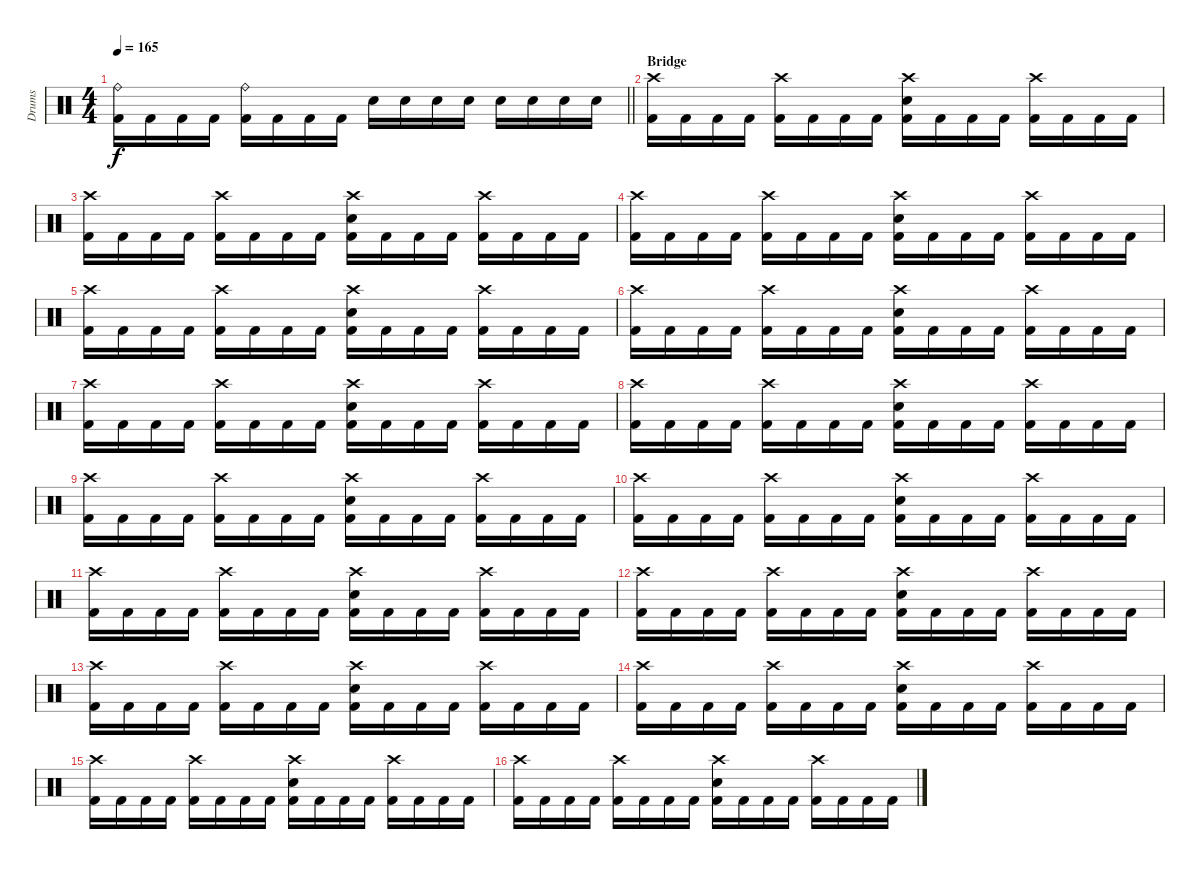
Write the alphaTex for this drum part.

\track ("Drums" "Drums") {instrument percussion}
\staff {score}
\articulation defaults
\ts (4 4)
\tempo 165
\clef neutral
\barLineRight lightlight
\ks c
("Kick (hit) 2" "Ride (bell)").16{dy f} "Kick (hit) 2".16 "Kick (hit) 2".16 "Kick (hit) 2".16 ("Kick (hit) 2" "Ride (bell)").16 "Kick (hit) 2".16 "Kick (hit) 2".16 "Kick (hit) 2".16 "Snare (hit) 2".16 "Snare (hit) 2".16 "Snare (hit) 2".16 "Snare (hit) 2".16 "Snare (hit) 2".16 "Snare (hit) 2".16 "Snare (hit) 2".16 "Snare (hit) 2".16 |
\section ("" "Bridge")
("Kick (hit) 2" "Crash high (hit)").16 "Kick (hit) 2".16 "Kick (hit) 2".16 "Kick (hit) 2".16 ("Kick (hit) 2" "Crash high (hit)").16 "Kick (hit) 2".16 "Kick (hit) 2".16 "Kick (hit) 2".16 ("Kick (hit) 2" "Snare (hit) 2" "Crash high (hit)").16 "Kick (hit) 2".16 "Kick (hit) 2".16 "Kick (hit) 2".16 ("Kick (hit) 2" "Crash high (hit)").16 "Kick (hit) 2".16 "Kick (hit) 2".16 "Kick (hit) 2".16 |
("Kick (hit) 2" "Crash high (hit)").16 "Kick (hit) 2".16 "Kick (hit) 2".16 "Kick (hit) 2".16 ("Kick (hit) 2" "Crash high (hit)").16 "Kick (hit) 2".16 "Kick (hit) 2".16 "Kick (hit) 2".16 ("Kick (hit) 2" "Snare (hit) 2" "Crash high (hit)").16 "Kick (hit) 2".16 "Kick (hit) 2".16 "Kick (hit) 2".16 ("Kick (hit) 2" "Crash high (hit)").16 "Kick (hit) 2".16 "Kick (hit) 2".16 "Kick (hit) 2".16 |
("Kick (hit) 2" "Crash high (hit)").16 "Kick (hit) 2".16 "Kick (hit) 2".16 "Kick (hit) 2".16 ("Kick (hit) 2" "Crash high (hit)").16 "Kick (hit) 2".16 "Kick (hit) 2".16 "Kick (hit) 2".16 ("Kick (hit) 2" "Snare (hit) 2" "Crash high (hit)").16 "Kick (hit) 2".16 "Kick (hit) 2".16 "Kick (hit) 2".16 ("Kick (hit) 2" "Crash high (hit)").16 "Kick (hit) 2".16 "Kick (hit) 2".16 "Kick (hit) 2".16 |
("Kick (hit) 2" "Crash high (hit)").16 "Kick (hit) 2".16 "Kick (hit) 2".16 "Kick (hit) 2".16 ("Kick (hit) 2" "Crash high (hit)").16 "Kick (hit) 2".16 "Kick (hit) 2".16 "Kick (hit) 2".16 ("Kick (hit) 2" "Snare (hit) 2" "Crash high (hit)").16 "Kick (hit) 2".16 "Kick (hit) 2".16 "Kick (hit) 2".16 ("Kick (hit) 2" "Crash high (hit)").16 "Kick (hit) 2".16 "Kick (hit) 2".16 "Kick (hit) 2".16 |
("Kick (hit) 2" "Crash high (hit)").16 "Kick (hit) 2".16 "Kick (hit) 2".16 "Kick (hit) 2".16 ("Kick (hit) 2" "Crash high (hit)").16 "Kick (hit) 2".16 "Kick (hit) 2".16 "Kick (hit) 2".16 ("Kick (hit) 2" "Snare (hit) 2" "Crash high (hit)").16 "Kick (hit) 2".16 "Kick (hit) 2".16 "Kick (hit) 2".16 ("Kick (hit) 2" "Crash high (hit)").16 "Kick (hit) 2".16 "Kick (hit) 2".16 "Kick (hit) 2".16 |
("Kick (hit) 2" "Crash high (hit)").16 "Kick (hit) 2".16 "Kick (hit) 2".16 "Kick (hit) 2".16 ("Kick (hit) 2" "Crash high (hit)").16 "Kick (hit) 2".16 "Kick (hit) 2".16 "Kick (hit) 2".16 ("Kick (hit) 2" "Snare (hit) 2" "Crash high (hit)").16 "Kick (hit) 2".16 "Kick (hit) 2".16 "Kick (hit) 2".16 ("Kick (hit) 2" "Crash high (hit)").16 "Kick (hit) 2".16 "Kick (hit) 2".16 "Kick (hit) 2".16 |
("Kick (hit) 2" "Crash high (hit)").16 "Kick (hit) 2".16 "Kick (hit) 2".16 "Kick (hit) 2".16 ("Kick (hit) 2" "Crash high (hit)").16 "Kick (hit) 2".16 "Kick (hit) 2".16 "Kick (hit) 2".16 ("Kick (hit) 2" "Snare (hit) 2" "Crash high (hit)").16 "Kick (hit) 2".16 "Kick (hit) 2".16 "Kick (hit) 2".16 ("Kick (hit) 2" "Crash high (hit)").16 "Kick (hit) 2".16 "Kick (hit) 2".16 "Kick (hit) 2".16 |
("Kick (hit) 2" "Crash high (hit)").16 "Kick (hit) 2".16 "Kick (hit) 2".16 "Kick (hit) 2".16 ("Kick (hit) 2" "Crash high (hit)").16 "Kick (hit) 2".16 "Kick (hit) 2".16 "Kick (hit) 2".16 ("Kick (hit) 2" "Snare (hit) 2" "Crash high (hit)").16 "Kick (hit) 2".16 "Kick (hit) 2".16 "Kick (hit) 2".16 ("Kick (hit) 2" "Crash high (hit)").16 "Kick (hit) 2".16 "Kick (hit) 2".16 "Kick (hit) 2".16 |
("Kick (hit) 2" "Crash high (hit)").16 "Kick (hit) 2".16 "Kick (hit) 2".16 "Kick (hit) 2".16 ("Kick (hit) 2" "Crash high (hit)").16 "Kick (hit) 2".16 "Kick (hit) 2".16 "Kick (hit) 2".16 ("Kick (hit) 2" "Snare (hit) 2" "Crash high (hit)").16 "Kick (hit) 2".16 "Kick (hit) 2".16 "Kick (hit) 2".16 ("Kick (hit) 2" "Crash high (hit)").16 "Kick (hit) 2".16 "Kick (hit) 2".16 "Kick (hit) 2".16 |
("Kick (hit) 2" "Crash high (hit)").16 "Kick (hit) 2".16 "Kick (hit) 2".16 "Kick (hit) 2".16 ("Kick (hit) 2" "Crash high (hit)").16 "Kick (hit) 2".16 "Kick (hit) 2".16 "Kick (hit) 2".16 ("Kick (hit) 2" "Snare (hit) 2" "Crash high (hit)").16 "Kick (hit) 2".16 "Kick (hit) 2".16 "Kick (hit) 2".16 ("Kick (hit) 2" "Crash high (hit)").16 "Kick (hit) 2".16 "Kick (hit) 2".16 "Kick (hit) 2".16 |
("Kick (hit) 2" "Crash high (hit)").16 "Kick (hit) 2".16 "Kick (hit) 2".16 "Kick (hit) 2".16 ("Kick (hit) 2" "Crash high (hit)").16 "Kick (hit) 2".16 "Kick (hit) 2".16 "Kick (hit) 2".16 ("Kick (hit) 2" "Snare (hit) 2" "Crash high (hit)").16 "Kick (hit) 2".16 "Kick (hit) 2".16 "Kick (hit) 2".16 ("Kick (hit) 2" "Crash high (hit)").16 "Kick (hit) 2".16 "Kick (hit) 2".16 "Kick (hit) 2".16 |
("Kick (hit) 2" "Crash high (hit)").16 "Kick (hit) 2".16 "Kick (hit) 2".16 "Kick (hit) 2".16 ("Kick (hit) 2" "Crash high (hit)").16 "Kick (hit) 2".16 "Kick (hit) 2".16 "Kick (hit) 2".16 ("Kick (hit) 2" "Snare (hit) 2" "Crash high (hit)").16 "Kick (hit) 2".16 "Kick (hit) 2".16 "Kick (hit) 2".16 ("Kick (hit) 2" "Crash high (hit)").16 "Kick (hit) 2".16 "Kick (hit) 2".16 "Kick (hit) 2".16 |
("Kick (hit) 2" "Crash high (hit)").16 "Kick (hit) 2".16 "Kick (hit) 2".16 "Kick (hit) 2".16 ("Kick (hit) 2" "Crash high (hit)").16 "Kick (hit) 2".16 "Kick (hit) 2".16 "Kick (hit) 2".16 ("Kick (hit) 2" "Snare (hit) 2" "Crash high (hit)").16 "Kick (hit) 2".16 "Kick (hit) 2".16 "Kick (hit) 2".16 ("Kick (hit) 2" "Crash high (hit)").16 "Kick (hit) 2".16 "Kick (hit) 2".16 "Kick (hit) 2".16 |
("Kick (hit) 2" "Crash high (hit)").16 "Kick (hit) 2".16 "Kick (hit) 2".16 "Kick (hit) 2".16 ("Kick (hit) 2" "Crash high (hit)").16 "Kick (hit) 2".16 "Kick (hit) 2".16 "Kick (hit) 2".16 ("Kick (hit) 2" "Snare (hit) 2" "Crash high (hit)").16 "Kick (hit) 2".16 "Kick (hit) 2".16 "Kick (hit) 2".16 ("Kick (hit) 2" "Crash high (hit)").16 "Kick (hit) 2".16 "Kick (hit) 2".16 "Kick (hit) 2".16 |
("Kick (hit) 2" "Crash high (hit)").16 "Kick (hit) 2".16 "Kick (hit) 2".16 "Kick (hit) 2".16 ("Kick (hit) 2" "Crash high (hit)").16 "Kick (hit) 2".16 "Kick (hit) 2".16 "Kick (hit) 2".16 ("Kick (hit) 2" "Snare (hit) 2" "Crash high (hit)").16 "Kick (hit) 2".16 "Kick (hit) 2".16 "Kick (hit) 2".16 ("Kick (hit) 2" "Crash high (hit)").16 "Kick (hit) 2".16 "Kick (hit) 2".16 "Kick (hit) 2".16
